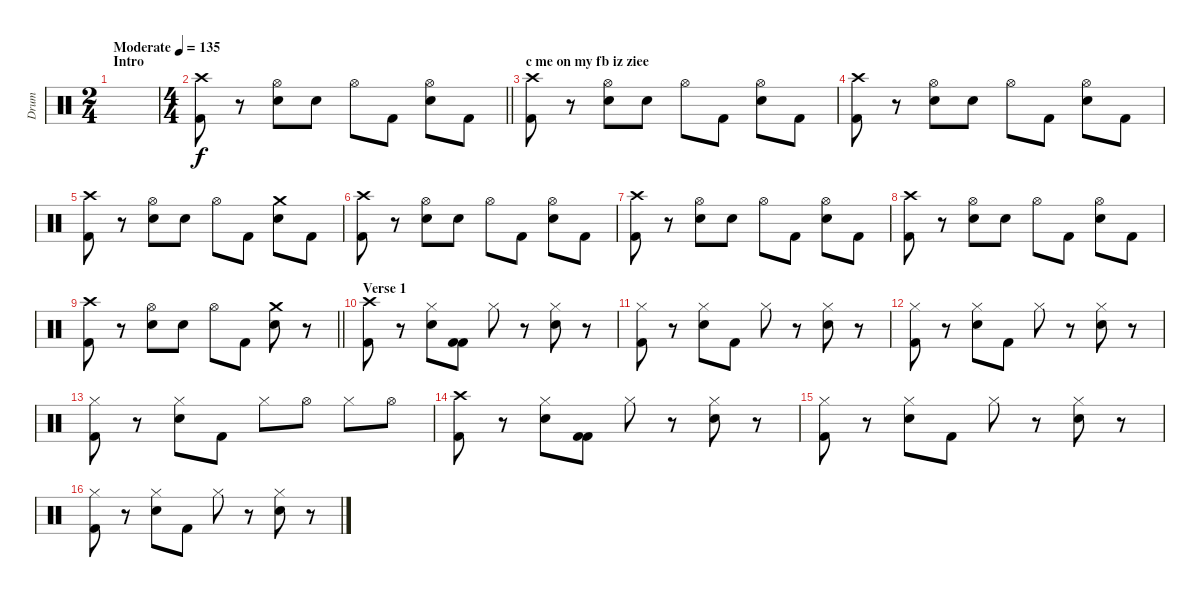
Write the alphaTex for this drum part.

\track ("Drum" "Drum") {instrument percussion}
\staff {score}
\articulation defaults
\ts (2 4)
\section ("" "Intro")
\tempo (135 "Moderate")
\clef neutral
\ks c
|
\ts (4 4)
\barLineRight lightlight
("Crash high (hit)" "Kick (hit) 2").8 r.8 ("Hi-Hat (open)" "Electric Snare (hit)").8 "Electric Snare (hit)".8 "Hi-Hat (open)".8 "Kick (hit) 2".8 ("Hi-Hat (open)" "Electric Snare (hit)").8 "Kick (hit) 2".8 |
\section ("" "c me on my fb iz ziee")
("Crash high (hit)" "Kick (hit) 2").8 r.8 ("Hi-Hat (open)" "Electric Snare (hit)").8 "Electric Snare (hit)".8 "Hi-Hat (open)".8 "Kick (hit) 2".8 ("Hi-Hat (open)" "Electric Snare (hit)").8 "Kick (hit) 2".8 |
("Crash high (hit)" "Kick (hit) 2").8 r.8 ("Hi-Hat (open)" "Electric Snare (hit)").8 "Electric Snare (hit)".8 "Hi-Hat (open)".8 "Kick (hit) 2".8 ("Hi-Hat (open)" "Electric Snare (hit)").8 "Kick (hit) 2".8 |
("Crash high (hit)" "Kick (hit) 2").8 r.8 ("Hi-Hat (open)" "Electric Snare (hit)").8 "Electric Snare (hit)".8 "Hi-Hat (open)".8 "Kick (hit) 2".8 ("Crash medium (hit)" "Electric Snare (hit)").8 "Kick (hit) 2".8 |
("Crash high (hit)" "Kick (hit) 2").8 r.8 ("Hi-Hat (open)" "Electric Snare (hit)").8 "Electric Snare (hit)".8 "Hi-Hat (open)".8 "Kick (hit) 2".8 ("Hi-Hat (open)" "Electric Snare (hit)").8 "Kick (hit) 2".8 |
("Crash high (hit)" "Kick (hit) 2").8 r.8 ("Electric Snare (hit)" "Hi-Hat (open)").8 "Electric Snare (hit)".8 "Hi-Hat (open)".8 "Kick (hit) 2".8 ("Electric Snare (hit)" "Hi-Hat (open)").8 "Kick (hit) 2".8 |
("Crash high (hit)" "Kick (hit) 2").8 r.8 ("Electric Snare (hit)" "Hi-Hat (open)").8 "Electric Snare (hit)".8 "Hi-Hat (open)".8 "Kick (hit) 2".8 ("Electric Snare (hit)" "Hi-Hat (open)").8 "Kick (hit) 2".8 |
\barLineRight lightlight
("Crash high (hit)" "Kick (hit) 2").8 r.8 ("Electric Snare (hit)" "Hi-Hat (open)").8 "Electric Snare (hit)".8 "Hi-Hat (open)".8 "Kick (hit) 2".8 ("Crash medium (hit)" "Electric Snare (hit)").8 r.8 |
\section ("" "Verse 1")
("Crash high (hit)" "Kick (hit) 2").8 r.8 ("Hi-Hat (closed)" "Electric Snare (hit)").8 ("Kick (hit) 2" "Kick (hit) 2").8 "Hi-Hat (closed)".8 r.8 ("Hi-Hat (closed)" "Electric Snare (hit)").8 r.8 |
("Hi-Hat (closed)" "Kick (hit) 2").8 r.8 ("Hi-Hat (closed)" "Electric Snare (hit)").8 "Kick (hit) 2".8 "Hi-Hat (closed)".8 r.8 ("Hi-Hat (closed)" "Electric Snare (hit)").8 r.8 |
("Hi-Hat (closed)" "Kick (hit) 2").8 r.8 ("Hi-Hat (closed)" "Electric Snare (hit)").8 "Kick (hit) 2".8 "Hi-Hat (closed)".8 r.8 ("Hi-Hat (closed)" "Electric Snare (hit)").8 r.8 |
("Hi-Hat (closed)" "Kick (hit) 2").8 r.8 ("Hi-Hat (closed)" "Electric Snare (hit)").8 "Kick (hit) 2".8 "Hi-Hat (closed)".8 "Hi-Hat (open)".8 "Hi-Hat (closed)".8 "Hi-Hat (open)".8 |
("Crash high (hit)" "Kick (hit) 2").8 r.8 ("Hi-Hat (closed)" "Electric Snare (hit)").8 ("Kick (hit) 2" "Kick (hit) 2").8 "Hi-Hat (closed)".8 r.8 ("Hi-Hat (closed)" "Electric Snare (hit)").8 r.8 |
("Hi-Hat (closed)" "Kick (hit) 2").8 r.8 ("Hi-Hat (closed)" "Electric Snare (hit)").8 "Kick (hit) 2".8 "Hi-Hat (closed)".8 r.8 ("Hi-Hat (closed)" "Electric Snare (hit)").8 r.8 |
("Hi-Hat (closed)" "Kick (hit) 2").8 r.8 ("Hi-Hat (closed)" "Electric Snare (hit)").8 "Kick (hit) 2".8 "Hi-Hat (closed)".8 r.8 ("Hi-Hat (closed)" "Electric Snare (hit)").8 r.8
